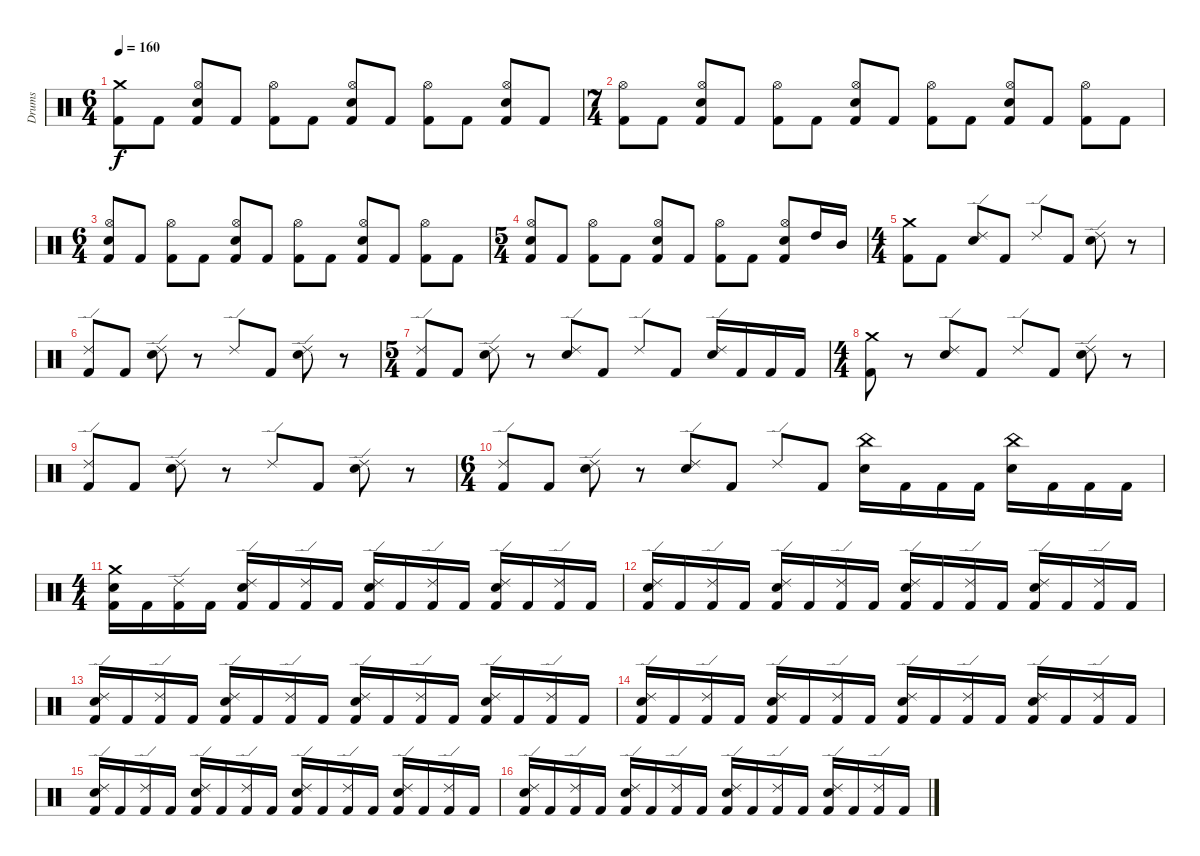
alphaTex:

\track ("Drums" "Drums") {instrument percussion}
\staff {score}
\articulation defaults
\ts (6 4)
\tempo 160
\clef neutral
\ks c
("Crash medium (hit)" "Kick (hit) 2").8{dy f} "Kick (hit) 2".8 ("Hi-Hat (open)" "Electric Snare (hit)" "Kick (hit) 2").8 "Kick (hit) 2".8 ("Hi-Hat (open)" "Kick (hit) 2").8 "Kick (hit) 2".8 ("Hi-Hat (open)" "Electric Snare (hit)" "Kick (hit) 2").8 "Kick (hit) 2".8 ("Hi-Hat (open)" "Kick (hit) 2").8 "Kick (hit) 2".8 ("Hi-Hat (open)" "Electric Snare (hit)" "Kick (hit) 2").8 "Kick (hit) 2".8 |
\ts (7 4)
("Hi-Hat (open)" "Kick (hit) 2").8 "Kick (hit) 2".8 ("Hi-Hat (open)" "Electric Snare (hit)" "Kick (hit) 2").8 "Kick (hit) 2".8 ("Hi-Hat (open)" "Kick (hit) 2").8 "Kick (hit) 2".8 ("Hi-Hat (open)" "Electric Snare (hit)" "Kick (hit) 2").8 "Kick (hit) 2".8 ("Hi-Hat (open)" "Kick (hit) 2").8 "Kick (hit) 2".8 ("Hi-Hat (open)" "Electric Snare (hit)" "Kick (hit) 2").8 "Kick (hit) 2".8 ("Hi-Hat (open)" "Kick (hit) 2").8 "Kick (hit) 2".8 |
\ts (6 4)
("Hi-Hat (open)" "Electric Snare (hit)" "Kick (hit) 2").8 "Kick (hit) 2".8 ("Hi-Hat (open)" "Kick (hit) 2").8 "Kick (hit) 2".8 ("Hi-Hat (open)" "Electric Snare (hit)" "Kick (hit) 2").8 "Kick (hit) 2".8 ("Hi-Hat (open)" "Kick (hit) 2").8 "Kick (hit) 2".8 ("Hi-Hat (open)" "Electric Snare (hit)" "Kick (hit) 2").8 "Kick (hit) 2".8 ("Hi-Hat (open)" "Kick (hit) 2").8 "Kick (hit) 2".8 |
\ts (5 4)
("Hi-Hat (open)" "Electric Snare (hit)" "Kick (hit) 2").8 "Kick (hit) 2".8 ("Hi-Hat (open)" "Kick (hit) 2").8 "Kick (hit) 2".8 ("Hi-Hat (open)" "Electric Snare (hit)" "Kick (hit) 2").8 "Kick (hit) 2".8 ("Hi-Hat (open)" "Kick (hit) 2").8 "Kick (hit) 2".8 ("Hi-Hat (open)" "Electric Snare (hit)" "Kick (hit) 2").8 "High Tom (hit)".16 "Mid Tom (hit)".16 |
\ts (4 4)
("Crash medium (hit)" "Kick (hit) 2").8 "Kick (hit) 2".8 ("Ride (edge) 2" "Electric Snare (hit)").8 "Kick (hit) 2".8 "Ride (edge) 2".8 "Kick (hit) 2".8 ("Ride (edge) 2" "Electric Snare (hit)").8 r.8 |
("Ride (edge) 2" "Kick (hit) 2").8 "Kick (hit) 2".8 ("Ride (edge) 2" "Electric Snare (hit)").8 r.8 "Ride (edge) 2".8 "Kick (hit) 2".8 ("Ride (edge) 2" "Electric Snare (hit)").8 r.8 |
\ts (5 4)
("Ride (edge) 2" "Kick (hit) 2").8 "Kick (hit) 2".8 ("Ride (edge) 2" "Electric Snare (hit)").8 r.8 ("Ride (edge) 2" "Electric Snare (hit)").8 "Kick (hit) 2".8 "Ride (edge) 2".8 "Kick (hit) 2".8 ("Ride (edge) 2" "Electric Snare (hit)").16 "Kick (hit) 2".16 "Kick (hit) 2".16 "Kick (hit) 2".16 |
\ts (4 4)
("Crash medium (hit)" "Kick (hit) 2").8 r.8 ("Ride (edge) 2" "Electric Snare (hit)").8 "Kick (hit) 2".8 "Ride (edge) 2".8 "Kick (hit) 2".8 ("Ride (edge) 2" "Electric Snare (hit)").8 r.8 |
("Ride (edge) 2" "Kick (hit) 2").8 "Kick (hit) 2".8 ("Ride (edge) 2" "Electric Snare (hit)").8 r.8 "Ride (edge) 2".8 "Kick (hit) 2".8 ("Ride (edge) 2" "Electric Snare (hit)").8 r.8 |
\ts (6 4)
("Ride (edge) 2" "Kick (hit) 2").8 "Kick (hit) 2".8 ("Ride (edge) 2" "Electric Snare (hit)").8 r.8 ("Ride (edge) 2" "Electric Snare (hit)").8 "Kick (hit) 2".8 "Ride (edge) 2".8 "Kick (hit) 2".8 ("China (hit)" "Electric Snare (hit)").16 "Kick (hit) 2".16 "Kick (hit) 2".16 "Kick (hit) 2".16 ("China (hit)" "Electric Snare (hit)").16 "Kick (hit) 2".16 "Kick (hit) 2".16 "Kick (hit) 2".16 |
\ts (4 4)
("Crash medium (hit)" "Kick (hit) 2" "Electric Snare (hit)").16 "Kick (hit) 2".16 ("Ride (edge) 2" "Kick (hit) 2").16 "Kick (hit) 2".16 ("Ride (edge) 2" "Kick (hit) 2" "Electric Snare (hit)").16 "Kick (hit) 2".16 ("Ride (edge) 2" "Kick (hit) 2").16 "Kick (hit) 2".16 ("Ride (edge) 2" "Kick (hit) 2" "Electric Snare (hit)").16 "Kick (hit) 2".16 ("Ride (edge) 2" "Kick (hit) 2").16 "Kick (hit) 2".16 ("Ride (edge) 2" "Kick (hit) 2" "Electric Snare (hit)").16 "Kick (hit) 2".16 ("Ride (edge) 2" "Kick (hit) 2").16 "Kick (hit) 2".16 |
("Ride (edge) 2" "Kick (hit) 2" "Electric Snare (hit)").16 "Kick (hit) 2".16 ("Ride (edge) 2" "Kick (hit) 2").16 "Kick (hit) 2".16 ("Ride (edge) 2" "Kick (hit) 2" "Electric Snare (hit)").16 "Kick (hit) 2".16 ("Ride (edge) 2" "Kick (hit) 2").16 "Kick (hit) 2".16 ("Ride (edge) 2" "Kick (hit) 2" "Electric Snare (hit)").16 "Kick (hit) 2".16 ("Ride (edge) 2" "Kick (hit) 2").16 "Kick (hit) 2".16 ("Ride (edge) 2" "Kick (hit) 2" "Electric Snare (hit)").16 "Kick (hit) 2".16 ("Ride (edge) 2" "Kick (hit) 2").16 "Kick (hit) 2".16 |
("Ride (edge) 2" "Kick (hit) 2" "Electric Snare (hit)").16 "Kick (hit) 2".16 ("Ride (edge) 2" "Kick (hit) 2").16 "Kick (hit) 2".16 ("Ride (edge) 2" "Kick (hit) 2" "Electric Snare (hit)").16 "Kick (hit) 2".16 ("Ride (edge) 2" "Kick (hit) 2").16 "Kick (hit) 2".16 ("Ride (edge) 2" "Kick (hit) 2" "Electric Snare (hit)").16 "Kick (hit) 2".16 ("Ride (edge) 2" "Kick (hit) 2").16 "Kick (hit) 2".16 ("Ride (edge) 2" "Kick (hit) 2" "Electric Snare (hit)").16 "Kick (hit) 2".16 ("Ride (edge) 2" "Kick (hit) 2").16 "Kick (hit) 2".16 |
("Ride (edge) 2" "Kick (hit) 2" "Electric Snare (hit)").16 "Kick (hit) 2".16 ("Ride (edge) 2" "Kick (hit) 2").16 "Kick (hit) 2".16 ("Ride (edge) 2" "Kick (hit) 2" "Electric Snare (hit)").16 "Kick (hit) 2".16 ("Ride (edge) 2" "Kick (hit) 2").16 "Kick (hit) 2".16 ("Ride (edge) 2" "Kick (hit) 2" "Electric Snare (hit)").16 "Kick (hit) 2".16 ("Ride (edge) 2" "Kick (hit) 2").16 "Kick (hit) 2".16 ("Ride (edge) 2" "Kick (hit) 2" "Electric Snare (hit)").16 "Kick (hit) 2".16 ("Ride (edge) 2" "Kick (hit) 2").16 "Kick (hit) 2".16 |
("Ride (edge) 2" "Kick (hit) 2" "Electric Snare (hit)").16 "Kick (hit) 2".16 ("Ride (edge) 2" "Kick (hit) 2").16 "Kick (hit) 2".16 ("Ride (edge) 2" "Kick (hit) 2" "Electric Snare (hit)").16 "Kick (hit) 2".16 ("Ride (edge) 2" "Kick (hit) 2").16 "Kick (hit) 2".16 ("Ride (edge) 2" "Kick (hit) 2" "Electric Snare (hit)").16 "Kick (hit) 2".16 ("Ride (edge) 2" "Kick (hit) 2").16 "Kick (hit) 2".16 ("Ride (edge) 2" "Kick (hit) 2" "Electric Snare (hit)").16 "Kick (hit) 2".16 ("Ride (edge) 2" "Kick (hit) 2").16 "Kick (hit) 2".16 |
("Ride (edge) 2" "Kick (hit) 2" "Electric Snare (hit)").16 "Kick (hit) 2".16 ("Ride (edge) 2" "Kick (hit) 2").16 "Kick (hit) 2".16 ("Ride (edge) 2" "Kick (hit) 2" "Electric Snare (hit)").16 "Kick (hit) 2".16 ("Ride (edge) 2" "Kick (hit) 2").16 "Kick (hit) 2".16 ("Ride (edge) 2" "Kick (hit) 2" "Electric Snare (hit)").16 "Kick (hit) 2".16 ("Ride (edge) 2" "Kick (hit) 2").16 "Kick (hit) 2".16 ("Ride (edge) 2" "Kick (hit) 2" "Electric Snare (hit)").16 "Kick (hit) 2".16 ("Ride (edge) 2" "Kick (hit) 2").16 "Kick (hit) 2".16
